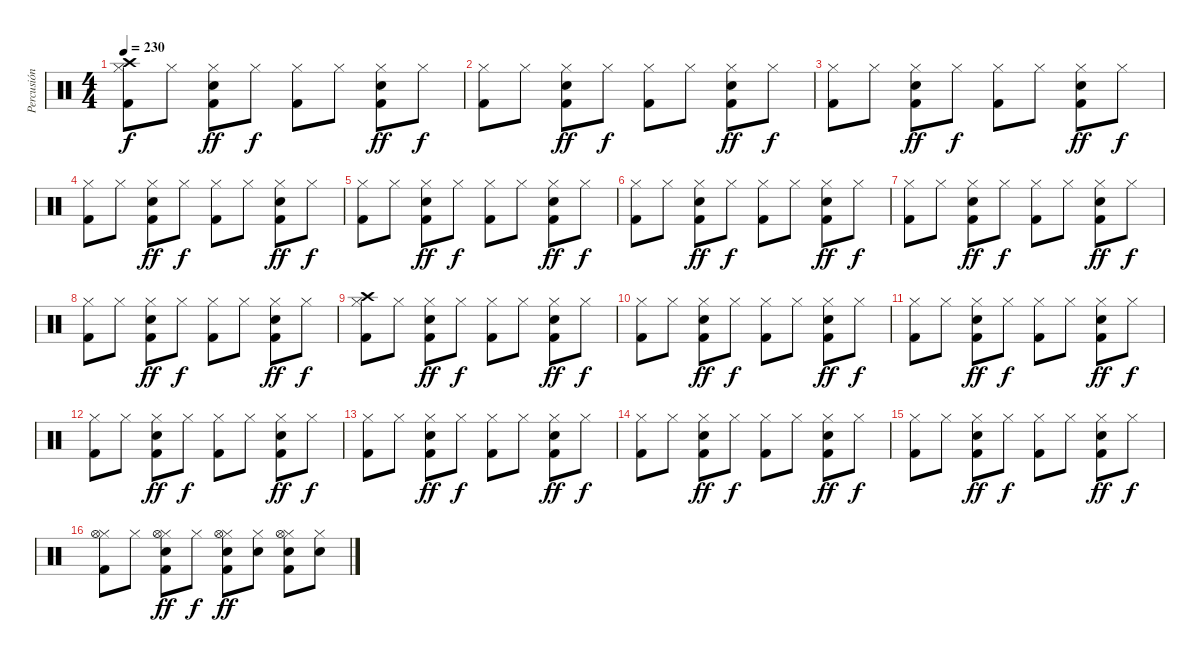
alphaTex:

\track ("Percusión" "Percusión") {instrument percussion}
\staff {score}
\articulation defaults
\ts (4 4)
\tempo 230
\clef neutral
\ks c
("Crash high (hit)" "Hi-Hat (closed)" "Kick (hit) 2").8{dy f} "Hi-Hat (closed)".8 ("Hi-Hat (closed)" "Snare (hit) 2" "Kick (hit) 2").8{dy ff} "Hi-Hat (closed)".8{dy f} ("Hi-Hat (closed)" "Kick (hit) 2").8 "Hi-Hat (closed)".8 ("Hi-Hat (closed)" "Snare (hit) 2" "Kick (hit) 2").8{dy ff} "Hi-Hat (closed)".8{dy f} |
("Hi-Hat (closed)" "Kick (hit) 2").8 "Hi-Hat (closed)".8 ("Hi-Hat (closed)" "Snare (hit) 2" "Kick (hit) 2").8{dy ff} "Hi-Hat (closed)".8{dy f} ("Hi-Hat (closed)" "Kick (hit) 2").8 "Hi-Hat (closed)".8 ("Hi-Hat (closed)" "Snare (hit) 2" "Kick (hit) 2").8{dy ff} "Hi-Hat (closed)".8{dy f} |
("Hi-Hat (closed)" "Kick (hit) 2").8 "Hi-Hat (closed)".8 ("Hi-Hat (closed)" "Snare (hit) 2" "Kick (hit) 2").8{dy ff} "Hi-Hat (closed)".8{dy f} ("Hi-Hat (closed)" "Kick (hit) 2").8 "Hi-Hat (closed)".8 ("Hi-Hat (closed)" "Snare (hit) 2" "Kick (hit) 2").8{dy ff} "Hi-Hat (closed)".8{dy f} |
("Hi-Hat (closed)" "Kick (hit) 2").8 "Hi-Hat (closed)".8 ("Hi-Hat (closed)" "Snare (hit) 2" "Kick (hit) 2").8{dy ff} "Hi-Hat (closed)".8{dy f} ("Hi-Hat (closed)" "Kick (hit) 2").8 "Hi-Hat (closed)".8 ("Hi-Hat (closed)" "Snare (hit) 2" "Kick (hit) 2").8{dy ff} "Hi-Hat (closed)".8{dy f} |
("Hi-Hat (closed)" "Kick (hit) 2").8 "Hi-Hat (closed)".8 ("Hi-Hat (closed)" "Snare (hit) 2" "Kick (hit) 2").8{dy ff} "Hi-Hat (closed)".8{dy f} ("Hi-Hat (closed)" "Kick (hit) 2").8 "Hi-Hat (closed)".8 ("Hi-Hat (closed)" "Snare (hit) 2" "Kick (hit) 2").8{dy ff} "Hi-Hat (closed)".8{dy f} |
("Hi-Hat (closed)" "Kick (hit) 2").8 "Hi-Hat (closed)".8 ("Hi-Hat (closed)" "Snare (hit) 2" "Kick (hit) 2").8{dy ff} "Hi-Hat (closed)".8{dy f} ("Hi-Hat (closed)" "Kick (hit) 2").8 "Hi-Hat (closed)".8 ("Hi-Hat (closed)" "Snare (hit) 2" "Kick (hit) 2").8{dy ff} "Hi-Hat (closed)".8{dy f} |
("Hi-Hat (closed)" "Kick (hit) 2").8 "Hi-Hat (closed)".8 ("Hi-Hat (closed)" "Snare (hit) 2" "Kick (hit) 2").8{dy ff} "Hi-Hat (closed)".8{dy f} ("Hi-Hat (closed)" "Kick (hit) 2").8 "Hi-Hat (closed)".8 ("Hi-Hat (closed)" "Snare (hit) 2" "Kick (hit) 2").8{dy ff} "Hi-Hat (closed)".8{dy f} |
("Hi-Hat (closed)" "Kick (hit) 2").8 "Hi-Hat (closed)".8 ("Hi-Hat (closed)" "Snare (hit) 2" "Kick (hit) 2").8{dy ff} "Hi-Hat (closed)".8{dy f} ("Hi-Hat (closed)" "Kick (hit) 2").8 "Hi-Hat (closed)".8 ("Hi-Hat (closed)" "Snare (hit) 2" "Kick (hit) 2").8{dy ff} "Hi-Hat (closed)".8{dy f} |
("Crash high (hit)" "Hi-Hat (closed)" "Kick (hit) 2").8 "Hi-Hat (closed)".8 ("Hi-Hat (closed)" "Snare (hit) 2" "Kick (hit) 2").8{dy ff} "Hi-Hat (closed)".8{dy f} ("Hi-Hat (closed)" "Kick (hit) 2").8 "Hi-Hat (closed)".8 ("Hi-Hat (closed)" "Snare (hit) 2" "Kick (hit) 2").8{dy ff} "Hi-Hat (closed)".8{dy f} |
("Hi-Hat (closed)" "Kick (hit) 2").8 "Hi-Hat (closed)".8 ("Hi-Hat (closed)" "Snare (hit) 2" "Kick (hit) 2").8{dy ff} "Hi-Hat (closed)".8{dy f} ("Hi-Hat (closed)" "Kick (hit) 2").8 "Hi-Hat (closed)".8 ("Hi-Hat (closed)" "Snare (hit) 2" "Kick (hit) 2").8{dy ff} "Hi-Hat (closed)".8{dy f} |
("Hi-Hat (closed)" "Kick (hit) 2").8 "Hi-Hat (closed)".8 ("Hi-Hat (closed)" "Snare (hit) 2" "Kick (hit) 2").8{dy ff} "Hi-Hat (closed)".8{dy f} ("Hi-Hat (closed)" "Kick (hit) 2").8 "Hi-Hat (closed)".8 ("Hi-Hat (closed)" "Snare (hit) 2" "Kick (hit) 2").8{dy ff} "Hi-Hat (closed)".8{dy f} |
("Hi-Hat (closed)" "Kick (hit) 2").8 "Hi-Hat (closed)".8 ("Hi-Hat (closed)" "Snare (hit) 2" "Kick (hit) 2").8{dy ff} "Hi-Hat (closed)".8{dy f} ("Hi-Hat (closed)" "Kick (hit) 2").8 "Hi-Hat (closed)".8 ("Hi-Hat (closed)" "Snare (hit) 2" "Kick (hit) 2").8{dy ff} "Hi-Hat (closed)".8{dy f} |
("Hi-Hat (closed)" "Kick (hit) 2").8 "Hi-Hat (closed)".8 ("Hi-Hat (closed)" "Snare (hit) 2" "Kick (hit) 2").8{dy ff} "Hi-Hat (closed)".8{dy f} ("Hi-Hat (closed)" "Kick (hit) 2").8 "Hi-Hat (closed)".8 ("Hi-Hat (closed)" "Snare (hit) 2" "Kick (hit) 2").8{dy ff} "Hi-Hat (closed)".8{dy f} |
("Hi-Hat (closed)" "Kick (hit) 2").8 "Hi-Hat (closed)".8 ("Hi-Hat (closed)" "Snare (hit) 2" "Kick (hit) 2").8{dy ff} "Hi-Hat (closed)".8{dy f} ("Hi-Hat (closed)" "Kick (hit) 2").8 "Hi-Hat (closed)".8 ("Hi-Hat (closed)" "Snare (hit) 2" "Kick (hit) 2").8{dy ff} "Hi-Hat (closed)".8{dy f} |
("Hi-Hat (closed)" "Kick (hit) 2").8 "Hi-Hat (closed)".8 ("Hi-Hat (closed)" "Snare (hit) 2" "Kick (hit) 2").8{dy ff} "Hi-Hat (closed)".8{dy f} ("Hi-Hat (closed)" "Kick (hit) 2").8 "Hi-Hat (closed)".8 ("Hi-Hat (closed)" "Snare (hit) 2" "Kick (hit) 2").8{dy ff} "Hi-Hat (closed)".8{dy f} |
("Hi-Hat (closed)" "Kick (hit) 2" "Hi-Hat (open)").8 "Hi-Hat (closed)".8 ("Hi-Hat (closed)" "Snare (hit) 2" "Kick (hit) 2" "Hi-Hat (open)").8{dy ff} "Hi-Hat (closed)".8{dy f} ("Hi-Hat (closed)" "Snare (hit) 2" "Kick (hit) 2" "Hi-Hat (open)").8{dy ff} ("Hi-Hat (closed)" "Snare (hit) 2").8 ("Hi-Hat (closed)" "Snare (hit) 2" "Kick (hit) 2" "Hi-Hat (open)").8 ("Hi-Hat (closed)" "Snare (hit) 2").8
